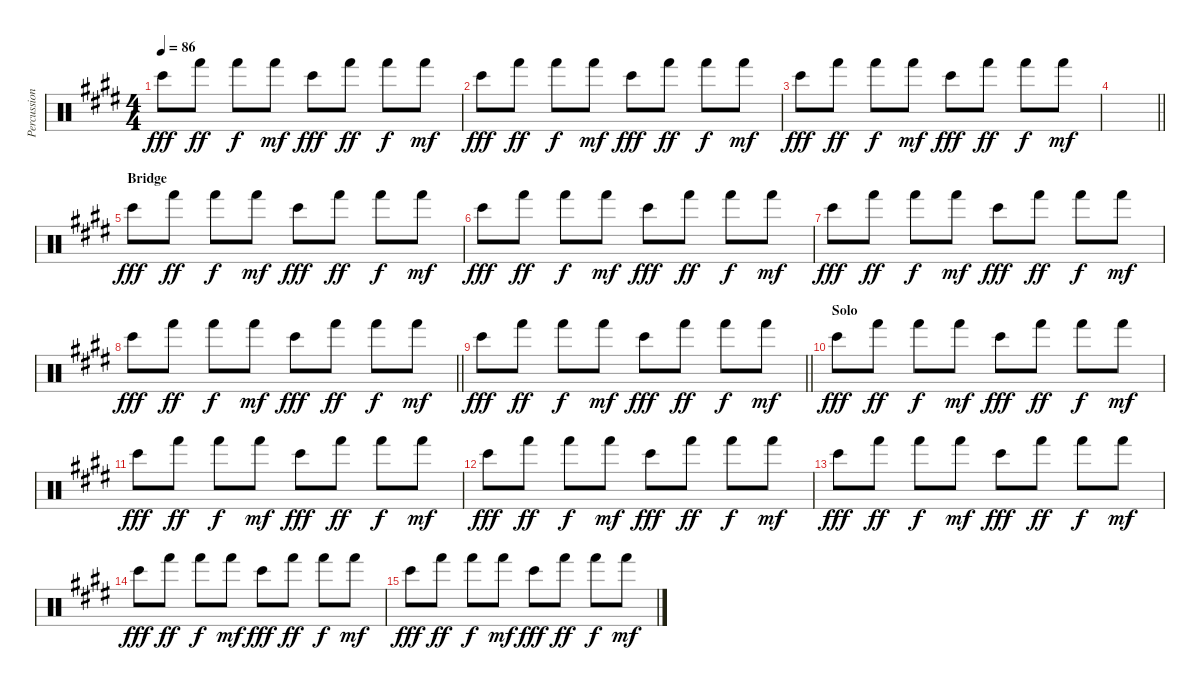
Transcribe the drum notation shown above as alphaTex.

\track ("Percussion" "Percussion") {instrument percussion}
\staff {score}
\articulation defaults
\ts (4 4)
\tempo 86
\clef neutral
\ks e "Bongo High (hit)".8{dy fff} "Hand (hit)".8{dy ff} "Hand (hit)".8{dy f} "Hand (hit)".8{dy mf} "Bongo High (hit)".8{dy fff} "Hand (hit)".8{dy ff} "Hand (hit)".8{dy f} "Hand (hit)".8{dy mf}
|
"Bongo High (hit)".8{dy fff} "Hand (hit)".8{dy ff} "Hand (hit)".8{dy f} "Hand (hit)".8{dy mf} "Bongo High (hit)".8{dy fff} "Hand (hit)".8{dy ff} "Hand (hit)".8{dy f} "Hand (hit)".8{dy mf} |
"Bongo High (hit)".8{dy fff} "Hand (hit)".8{dy ff} "Hand (hit)".8{dy f} "Hand (hit)".8{dy mf} "Bongo High (hit)".8{dy fff} "Hand (hit)".8{dy ff} "Hand (hit)".8{dy f} "Hand (hit)".8{dy mf} |
\barLineRight lightlight
|
\section ("" "Bridge")
"Bongo High (hit)".8{dy fff} "Hand (hit)".8{dy ff} "Hand (hit)".8{dy f} "Hand (hit)".8{dy mf} "Bongo High (hit)".8{dy fff} "Hand (hit)".8{dy ff} "Hand (hit)".8{dy f} "Hand (hit)".8{dy mf} |
"Bongo High (hit)".8{dy fff} "Hand (hit)".8{dy ff} "Hand (hit)".8{dy f} "Hand (hit)".8{dy mf} "Bongo High (hit)".8{dy fff} "Hand (hit)".8{dy ff} "Hand (hit)".8{dy f} "Hand (hit)".8{dy mf} |
"Bongo High (hit)".8{dy fff} "Hand (hit)".8{dy ff} "Hand (hit)".8{dy f} "Hand (hit)".8{dy mf} "Bongo High (hit)".8{dy fff} "Hand (hit)".8{dy ff} "Hand (hit)".8{dy f} "Hand (hit)".8{dy mf} |
\barLineRight lightlight "Bongo High (hit)".8{dy fff} "Hand (hit)".8{dy ff} "Hand (hit)".8{dy f} "Hand (hit)".8{dy mf} "Bongo High (hit)".8{dy fff} "Hand (hit)".8{dy ff} "Hand (hit)".8{dy f} "Hand (hit)".8{dy mf}
|
\barLineRight lightlight "Bongo High (hit)".8{dy fff} "Hand (hit)".8{dy ff} "Hand (hit)".8{dy f} "Hand (hit)".8{dy mf} "Bongo High (hit)".8{dy fff} "Hand (hit)".8{dy ff} "Hand (hit)".8{dy f} "Hand (hit)".8{dy mf}
|
\section ("" "Solo")
"Bongo High (hit)".8{dy fff} "Hand (hit)".8{dy ff} "Hand (hit)".8{dy f} "Hand (hit)".8{dy mf} "Bongo High (hit)".8{dy fff} "Hand (hit)".8{dy ff} "Hand (hit)".8{dy f} "Hand (hit)".8{dy mf} |
"Bongo High (hit)".8{dy fff} "Hand (hit)".8{dy ff} "Hand (hit)".8{dy f} "Hand (hit)".8{dy mf} "Bongo High (hit)".8{dy fff} "Hand (hit)".8{dy ff} "Hand (hit)".8{dy f} "Hand (hit)".8{dy mf} |
"Bongo High (hit)".8{dy fff} "Hand (hit)".8{dy ff} "Hand (hit)".8{dy f} "Hand (hit)".8{dy mf} "Bongo High (hit)".8{dy fff} "Hand (hit)".8{dy ff} "Hand (hit)".8{dy f} "Hand (hit)".8{dy mf} |
"Bongo High (hit)".8{dy fff} "Hand (hit)".8{dy ff} "Hand (hit)".8{dy f} "Hand (hit)".8{dy mf} "Bongo High (hit)".8{dy fff} "Hand (hit)".8{dy ff} "Hand (hit)".8{dy f} "Hand (hit)".8{dy mf} |
"Bongo High (hit)".8{dy fff} "Hand (hit)".8{dy ff} "Hand (hit)".8{dy f} "Hand (hit)".8{dy mf} "Bongo High (hit)".8{dy fff} "Hand (hit)".8{dy ff} "Hand (hit)".8{dy f} "Hand (hit)".8{dy mf} |
"Bongo High (hit)".8{dy fff} "Hand (hit)".8{dy ff} "Hand (hit)".8{dy f} "Hand (hit)".8{dy mf} "Bongo High (hit)".8{dy fff} "Hand (hit)".8{dy ff} "Hand (hit)".8{dy f} "Hand (hit)".8{dy mf}
